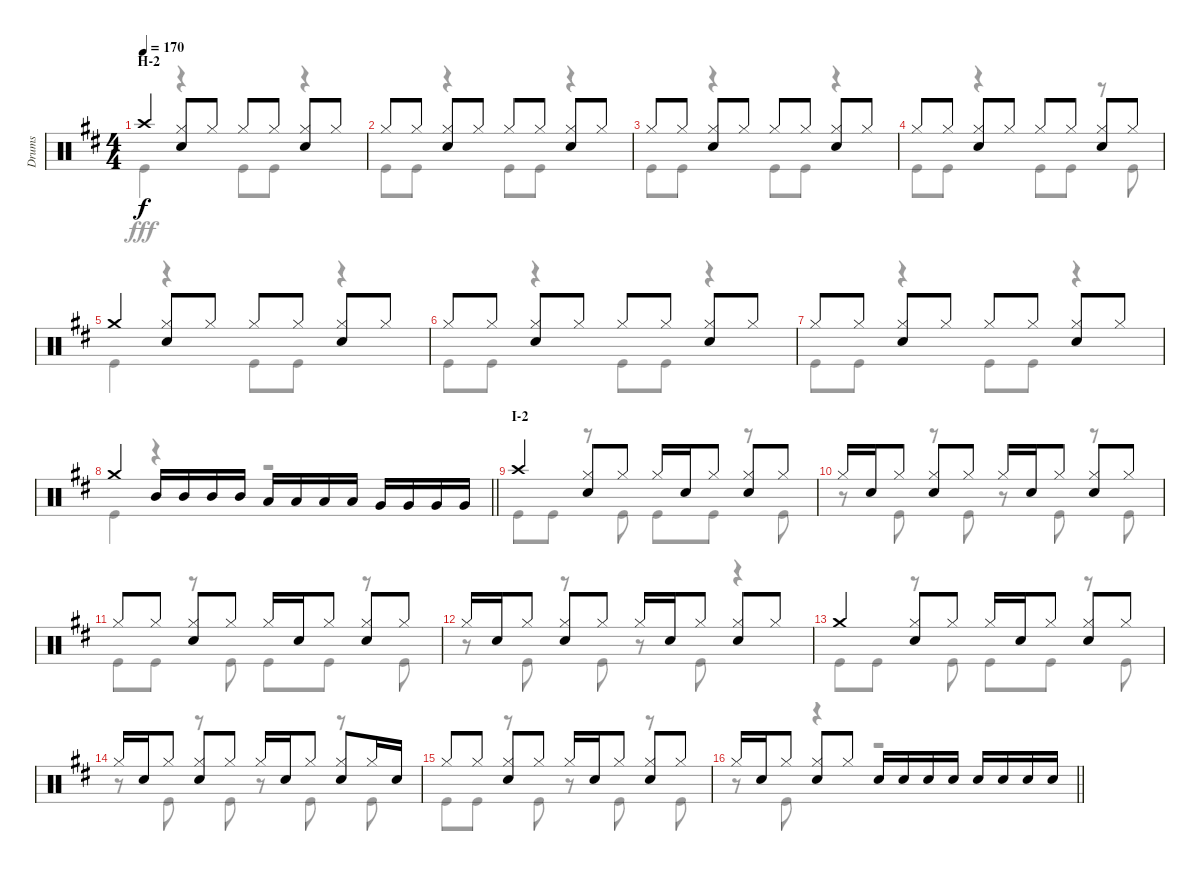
\track ("Drums" "Drums") {instrument percussion}
\staff {score}
\articulation defaults
\voice
\ts (4 4)
\section ("" "H-2")
\tempo 170
\clef neutral
\ks d "Crash high (hit)".4{dy f}
("Hi-Hat (closed)" "Snare (hit) 2").8 "Hi-Hat (closed)".8 "Hi-Hat (closed)".8 "Hi-Hat (closed)".8 ("Hi-Hat (closed)" "Snare (hit) 2").8 "Hi-Hat (closed)".8 |
"Hi-Hat (closed)".8 "Hi-Hat (closed)".8 ("Hi-Hat (closed)" "Snare (hit) 2").8 "Hi-Hat (closed)".8 "Hi-Hat (closed)".8 "Hi-Hat (closed)".8 ("Hi-Hat (closed)" "Snare (hit) 2").8 "Hi-Hat (closed)".8 |
"Hi-Hat (closed)".8 "Hi-Hat (closed)".8 ("Hi-Hat (closed)" "Snare (hit) 2").8 "Hi-Hat (closed)".8 "Hi-Hat (closed)".8 "Hi-Hat (closed)".8 ("Hi-Hat (closed)" "Snare (hit) 2").8 "Hi-Hat (closed)".8 |
"Hi-Hat (closed)".8 "Hi-Hat (closed)".8 ("Hi-Hat (closed)" "Snare (hit) 2").8 "Hi-Hat (closed)".8 "Hi-Hat (closed)".8 "Hi-Hat (closed)".8 ("Hi-Hat (closed)" "Snare (hit) 2").8 "Hi-Hat (closed)".8 |
"Crash medium (hit)".4 ("Hi-Hat (closed)" "Snare (hit) 2").8 "Hi-Hat (closed)".8 "Hi-Hat (closed)".8 "Hi-Hat (closed)".8 ("Hi-Hat (closed)" "Snare (hit) 2").8 "Hi-Hat (closed)".8 |
"Hi-Hat (closed)".8 "Hi-Hat (closed)".8 ("Hi-Hat (closed)" "Snare (hit) 2").8 "Hi-Hat (closed)".8 "Hi-Hat (closed)".8 "Hi-Hat (closed)".8 ("Hi-Hat (closed)" "Snare (hit) 2").8 "Hi-Hat (closed)".8 |
"Hi-Hat (closed)".8 "Hi-Hat (closed)".8 ("Hi-Hat (closed)" "Snare (hit) 2").8 "Hi-Hat (closed)".8 "Hi-Hat (closed)".8 "Hi-Hat (closed)".8 ("Hi-Hat (closed)" "Snare (hit) 2").8 "Hi-Hat (closed)".8 |
\barLineRight lightlight "Crash medium (hit)".4 "Mid Tom (hit)".16 "Mid Tom (hit)".16 "Mid Tom (hit)".16 "Mid Tom (hit)".16 "Low Tom (hit)".16 "Low Tom (hit)".16 "Low Tom (hit)".16 "Low Tom (hit)".16 "Very Low Tom (hit)".16 "Very Low Tom (hit)".16 "Very Low Tom (hit)".16 "Very Low Tom (hit)".16
|
\section ("" "I-2")
"Crash high (hit)".4 ("Hi-Hat (closed)" "Snare (hit) 2").8 "Hi-Hat (closed)".8 "Hi-Hat (closed)".16 "Snare (hit) 2".16 "Hi-Hat (closed)".8 ("Hi-Hat (closed)" "Snare (hit) 2").8 "Hi-Hat (closed)".8 |
"Hi-Hat (closed)".16 "Snare (hit) 2".16 "Hi-Hat (closed)".8 ("Hi-Hat (closed)" "Snare (hit) 2").8 "Hi-Hat (closed)".8 "Hi-Hat (closed)".16 "Snare (hit) 2".16 "Hi-Hat (closed)".8 ("Hi-Hat (closed)" "Snare (hit) 2").8 "Hi-Hat (closed)".8 |
"Hi-Hat (closed)".8 "Hi-Hat (closed)".8 ("Hi-Hat (closed)" "Snare (hit) 2").8 "Hi-Hat (closed)".8 "Hi-Hat (closed)".16 "Snare (hit) 2".16 "Hi-Hat (closed)".8 ("Hi-Hat (closed)" "Snare (hit) 2").8 "Hi-Hat (closed)".8 |
"Hi-Hat (closed)".16 "Snare (hit) 2".16 "Hi-Hat (closed)".8 ("Hi-Hat (closed)" "Snare (hit) 2").8 "Hi-Hat (closed)".8 "Hi-Hat (closed)".16 "Snare (hit) 2".16 "Hi-Hat (closed)".8 ("Hi-Hat (closed)" "Snare (hit) 2").8 "Hi-Hat (closed)".8 |
"Crash medium (hit)".4 ("Hi-Hat (closed)" "Snare (hit) 2").8 "Hi-Hat (closed)".8 "Hi-Hat (closed)".16 "Snare (hit) 2".16 "Hi-Hat (closed)".8 ("Hi-Hat (closed)" "Snare (hit) 2").8 "Hi-Hat (closed)".8 |
"Hi-Hat (closed)".16 "Snare (hit) 2".16 "Hi-Hat (closed)".8 ("Hi-Hat (closed)" "Snare (hit) 2").8 "Hi-Hat (closed)".8 "Hi-Hat (closed)".16 "Snare (hit) 2".16 "Hi-Hat (closed)".8 ("Hi-Hat (closed)" "Snare (hit) 2").8 "Hi-Hat (closed)".16 "Snare (hit) 2".16 |
"Hi-Hat (closed)".8 "Hi-Hat (closed)".8 ("Hi-Hat (closed)" "Snare (hit) 2").8 "Hi-Hat (closed)".8 "Hi-Hat (closed)".16 "Snare (hit) 2".16 "Hi-Hat (closed)".8 ("Hi-Hat (closed)" "Snare (hit) 2").8 "Hi-Hat (closed)".8 |
\barLineRight lightlight "Hi-Hat (closed)".16 "Snare (hit) 2".16 "Hi-Hat (closed)".8
("Hi-Hat (closed)" "Snare (hit) 2").8 "Hi-Hat (closed)".8 "Snare (hit) 2".16 "Snare (hit) 2".16 "Snare (hit) 2".16 "Snare (hit) 2".16 "Snare (hit) 2".16 "Snare (hit) 2".16 "Snare (hit) 2".16 "Snare (hit) 2".16
\voice
\clef neutral
\ottava regular
\simile none
\ks d "Kick (hit)".4{dy fff}
r.4 "Kick (hit)".8 "Kick (hit)".8 r.4 |
"Kick (hit)".8 "Kick (hit)".8 r.4 "Kick (hit)".8 "Kick (hit)".8 r.4 |
"Kick (hit)".8 "Kick (hit)".8 r.4 "Kick (hit)".8 "Kick (hit)".8 r.4 |
"Kick (hit)".8 "Kick (hit)".8 r.4 "Kick (hit)".8 "Kick (hit)".8 r.8 "Kick (hit)".8 |
"Kick (hit)".4 r.4 "Kick (hit)".8 "Kick (hit)".8 r.4 |
"Kick (hit)".8 "Kick (hit)".8 r.4 "Kick (hit)".8 "Kick (hit)".8 r.4 |
"Kick (hit)".8 "Kick (hit)".8 r.4 "Kick (hit)".8 "Kick (hit)".8 r.4 |
\barLineRight lightlight "Kick (hit)".4
r.4 r.2 |
"Kick (hit)".8 "Kick (hit)".8 r.8 "Kick (hit)".8 "Kick (hit)".8 "Kick (hit)".8 r.8 "Kick (hit)".8 |
r.8 "Kick (hit)".8 r.8 "Kick (hit)".8 r.8 "Kick (hit)".8 r.8 "Kick (hit)".8 |
"Kick (hit)".8 "Kick (hit)".8 r.8 "Kick (hit)".8 "Kick (hit)".8 "Kick (hit)".8 r.8 "Kick (hit)".8 |
r.8 "Kick (hit)".8 r.8 "Kick (hit)".8 r.8 "Kick (hit)".8 r.4 |
"Kick (hit)".8 "Kick (hit)".8 r.8 "Kick (hit)".8 "Kick (hit)".8 "Kick (hit)".8 r.8 "Kick (hit)".8 |
r.8 "Kick (hit)".8 r.8 "Kick (hit)".8 r.8 "Kick (hit)".8 r.8 "Kick (hit)".8 |
"Kick (hit)".8 "Kick (hit)".8 r.8 "Kick (hit)".8 r.8 "Kick (hit)".8 r.8 "Kick (hit)".8 |
\barLineRight lightlight
r.8 "Kick (hit)".8 r.4 r.2
